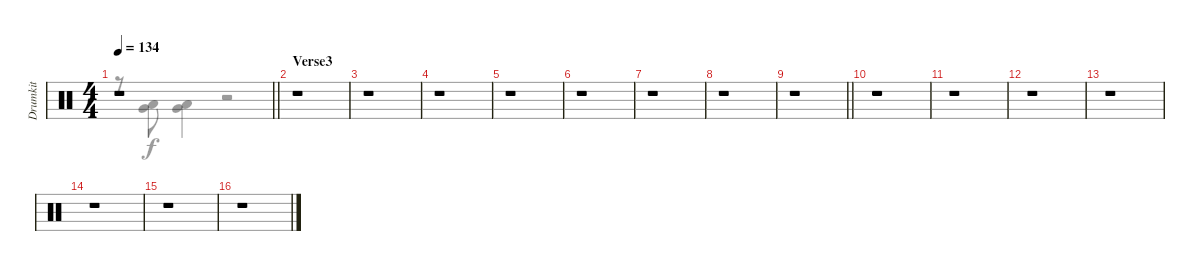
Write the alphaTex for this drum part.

\track ("Drumkit" "Drumkit") {instrument percussion}
\staff {score}
\articulation defaults
\voice
\ts (4 4)
\tempo 134
\clef neutral
\barLineRight lightlight
\ks c
r.1{dy f} |
\section ("" "Verse3")
r.1 |
r.1 |
r.1 |
r.1 |
r.1 |
r.1 |
r.1 |
\barLineRight lightlight
r.1 |
\section ("" "")
r.1 |
r.1 |
r.1 |
r.1 |
r.1 |
r.1 |
r.1
\voice
\clef neutral
\ottava regular
\simile none
\barLineRight lightlight
\ks c
r.8{dy f} ("Low Tom (hit)" "Very Low Tom (hit)").8 ("Low Tom (hit)" "Very Low Tom (hit)").4 r.2 |
|
|
|
|
|
|
|
\barLineRight lightlight
|
|
|
|
|
|
|
